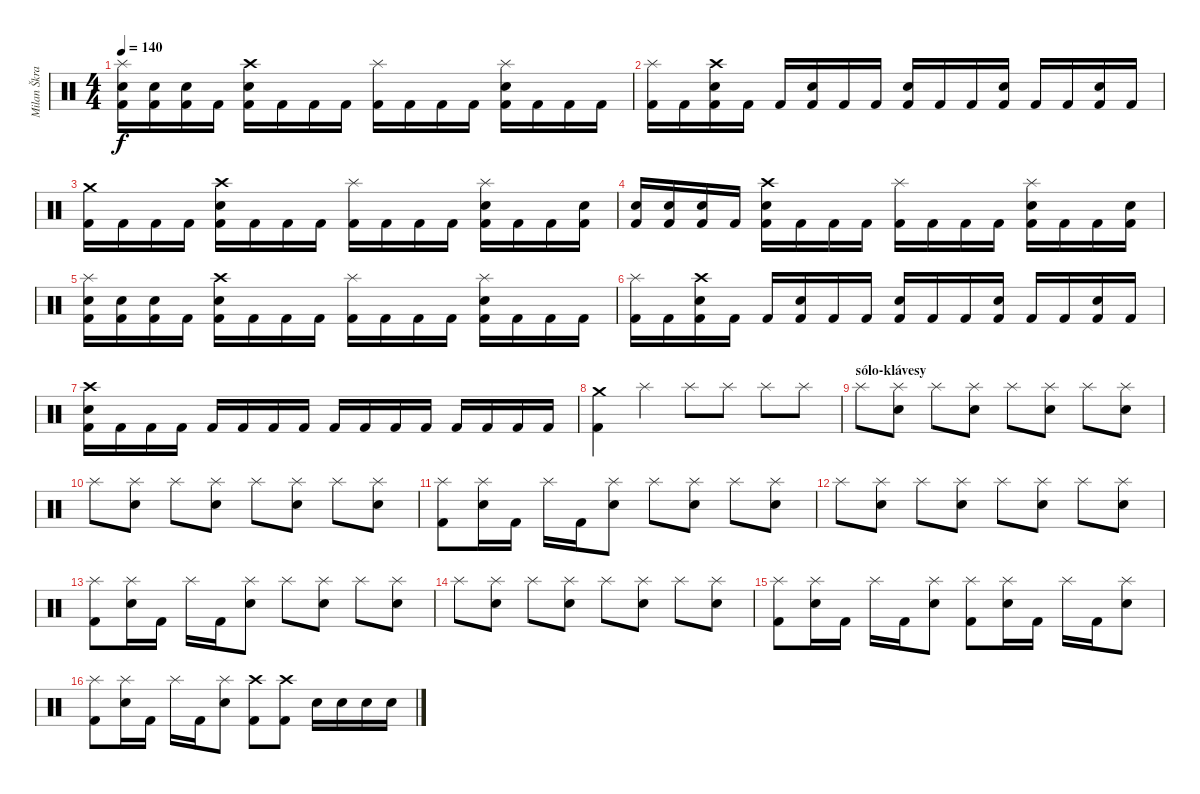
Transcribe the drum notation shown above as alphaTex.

\track ("Milan Škrabal" "Milan Škra") {instrument percussion}
\staff {score}
\articulation defaults
\ts (4 4)
\tempo 140
\clef neutral
\ks c
("Splash (hit)" "Electric Snare (hit)" "Kick (hit) 2").16{dy f} ("Electric Snare (hit)" "Kick (hit) 2").16 ("Electric Snare (hit)" "Kick (hit) 2").16 "Kick (hit) 2".16 ("Crash high (hit)" "Electric Snare (hit)" "Kick (hit) 2").16 "Kick (hit) 2".16 "Kick (hit) 2".16 "Kick (hit) 2".16 ("Splash (hit)" "Kick (hit) 2").16 "Kick (hit) 2".16 "Kick (hit) 2".16 "Kick (hit) 2".16 ("Splash (hit)" "Electric Snare (hit)" "Kick (hit) 2").16 "Kick (hit) 2".16 "Kick (hit) 2".16 "Kick (hit) 2".16 |
("Splash (hit)" "Kick (hit) 2").16 "Kick (hit) 2".16 ("Crash high (hit)" "Electric Snare (hit)" "Kick (hit) 2").16 "Kick (hit) 2".16 "Kick (hit) 2".16 ("Electric Snare (hit)" "Kick (hit) 2").16 "Kick (hit) 2".16 "Kick (hit) 2".16 ("Electric Snare (hit)" "Kick (hit) 2").16 "Kick (hit) 2".16 "Kick (hit) 2".16 ("Electric Snare (hit)" "Kick (hit) 2").16 "Kick (hit) 2".16 "Kick (hit) 2".16 ("Electric Snare (hit)" "Kick (hit) 2").16 "Kick (hit) 2".16 |
("Crash medium (hit)" "Kick (hit) 2").16 "Kick (hit) 2".16 "Kick (hit) 2".16 "Kick (hit) 2".16 ("Crash high (hit)" "Electric Snare (hit)" "Kick (hit) 2").16 "Kick (hit) 2".16 "Kick (hit) 2".16 "Kick (hit) 2".16 ("Splash (hit)" "Kick (hit) 2").16 "Kick (hit) 2".16 "Kick (hit) 2".16 "Kick (hit) 2".16 ("Splash (hit)" "Electric Snare (hit)" "Kick (hit) 2").16 "Kick (hit) 2".16 "Kick (hit) 2".16 ("Electric Snare (hit)" "Kick (hit) 2").16 |
("Electric Snare (hit)" "Kick (hit) 2").16 ("Electric Snare (hit)" "Kick (hit) 2").16 ("Electric Snare (hit)" "Kick (hit) 2").16 "Kick (hit) 2".16 ("Crash high (hit)" "Electric Snare (hit)" "Kick (hit) 2").16 "Kick (hit) 2".16 "Kick (hit) 2".16 "Kick (hit) 2".16 ("Splash (hit)" "Kick (hit) 2").16 "Kick (hit) 2".16 "Kick (hit) 2".16 "Kick (hit) 2".16 ("Splash (hit)" "Electric Snare (hit)" "Kick (hit) 2").16 "Kick (hit) 2".16 "Kick (hit) 2".16 ("Electric Snare (hit)" "Kick (hit) 2").16 |
("Splash (hit)" "Electric Snare (hit)" "Kick (hit) 2").16 ("Electric Snare (hit)" "Kick (hit) 2").16 ("Electric Snare (hit)" "Kick (hit) 2").16 "Kick (hit) 2".16 ("Crash high (hit)" "Electric Snare (hit)" "Kick (hit) 2").16 "Kick (hit) 2".16 "Kick (hit) 2".16 "Kick (hit) 2".16 ("Splash (hit)" "Kick (hit) 2").16 "Kick (hit) 2".16 "Kick (hit) 2".16 "Kick (hit) 2".16 ("Splash (hit)" "Electric Snare (hit)" "Kick (hit) 2").16 "Kick (hit) 2".16 "Kick (hit) 2".16 "Kick (hit) 2".16 |
("Splash (hit)" "Kick (hit) 2").16 "Kick (hit) 2".16 ("Crash high (hit)" "Electric Snare (hit)" "Kick (hit) 2").16 "Kick (hit) 2".16 "Kick (hit) 2".16 ("Electric Snare (hit)" "Kick (hit) 2").16 "Kick (hit) 2".16 "Kick (hit) 2".16 ("Electric Snare (hit)" "Kick (hit) 2").16 "Kick (hit) 2".16 "Kick (hit) 2".16 ("Electric Snare (hit)" "Kick (hit) 2").16 "Kick (hit) 2".16 "Kick (hit) 2".16 ("Electric Snare (hit)" "Kick (hit) 2").16 "Kick (hit) 2".16 |
("Crash high (hit)" "Electric Snare (hit)" "Kick (hit) 2").16 "Kick (hit) 2".16 "Kick (hit) 2".16 "Kick (hit) 2".16 "Kick (hit) 2".16 "Kick (hit) 2".16 "Kick (hit) 2".16 "Kick (hit) 2".16 "Kick (hit) 2".16 "Kick (hit) 2".16 "Kick (hit) 2".16 "Kick (hit) 2".16 "Kick (hit) 2".16 "Kick (hit) 2".16 "Kick (hit) 2".16 "Kick (hit) 2".16 |
("Crash medium (hit)" "Kick (hit) 2").4 "Splash (hit)".4 "Splash (hit)".8 "Splash (hit)".8 "Splash (hit)".8 "Splash (hit)".8 |
\section ("" "sólo-klávesy")
"Splash (hit)".8 ("Splash (hit)" "Electric Snare (hit)").8 "Splash (hit)".8 ("Splash (hit)" "Electric Snare (hit)").8 "Splash (hit)".8 ("Splash (hit)" "Electric Snare (hit)").8 "Splash (hit)".8 ("Splash (hit)" "Electric Snare (hit)").8 |
"Splash (hit)".8 ("Splash (hit)" "Electric Snare (hit)").8 "Splash (hit)".8 ("Splash (hit)" "Electric Snare (hit)").8 "Splash (hit)".8 ("Splash (hit)" "Electric Snare (hit)").8 "Splash (hit)".8 ("Splash (hit)" "Electric Snare (hit)").8 |
("Splash (hit)" "Kick (hit) 2").8 ("Splash (hit)" "Electric Snare (hit)").16 "Kick (hit) 2".16 "Splash (hit)".16 "Kick (hit) 2".16 ("Splash (hit)" "Electric Snare (hit)").8 "Splash (hit)".8 ("Splash (hit)" "Electric Snare (hit)").8 "Splash (hit)".8 ("Splash (hit)" "Electric Snare (hit)").8 |
"Splash (hit)".8 ("Splash (hit)" "Electric Snare (hit)").8 "Splash (hit)".8 ("Splash (hit)" "Electric Snare (hit)").8 "Splash (hit)".8 ("Splash (hit)" "Electric Snare (hit)").8 "Splash (hit)".8 ("Splash (hit)" "Electric Snare (hit)").8 |
("Splash (hit)" "Kick (hit) 2").8 ("Splash (hit)" "Electric Snare (hit)").16 "Kick (hit) 2".16 "Splash (hit)".16 "Kick (hit) 2".16 ("Splash (hit)" "Electric Snare (hit)").8 "Splash (hit)".8 ("Splash (hit)" "Electric Snare (hit)").8 "Splash (hit)".8 ("Splash (hit)" "Electric Snare (hit)").8 |
"Splash (hit)".8 ("Splash (hit)" "Electric Snare (hit)").8 "Splash (hit)".8 ("Splash (hit)" "Electric Snare (hit)").8 "Splash (hit)".8 ("Splash (hit)" "Electric Snare (hit)").8 "Splash (hit)".8 ("Splash (hit)" "Electric Snare (hit)").8 |
("Splash (hit)" "Kick (hit) 2").8 ("Splash (hit)" "Electric Snare (hit)").16 "Kick (hit) 2".16 "Splash (hit)".16 "Kick (hit) 2".16 ("Splash (hit)" "Electric Snare (hit)").8 ("Splash (hit)" "Kick (hit) 2").8 ("Splash (hit)" "Electric Snare (hit)").16 "Kick (hit) 2".16 "Splash (hit)".16 "Kick (hit) 2".16 ("Splash (hit)" "Electric Snare (hit)").8 |
("Splash (hit)" "Kick (hit) 2").8 ("Splash (hit)" "Electric Snare (hit)").16 "Kick (hit) 2".16 "Splash (hit)".16 "Kick (hit) 2".16 ("Splash (hit)" "Electric Snare (hit)").8 ("Crash high (hit)" "Kick (hit) 2").8 ("Crash high (hit)" "Kick (hit) 2").8 "Electric Snare (hit)".16 "Electric Snare (hit)".16 "Electric Snare (hit)".16 "Electric Snare (hit)".16
